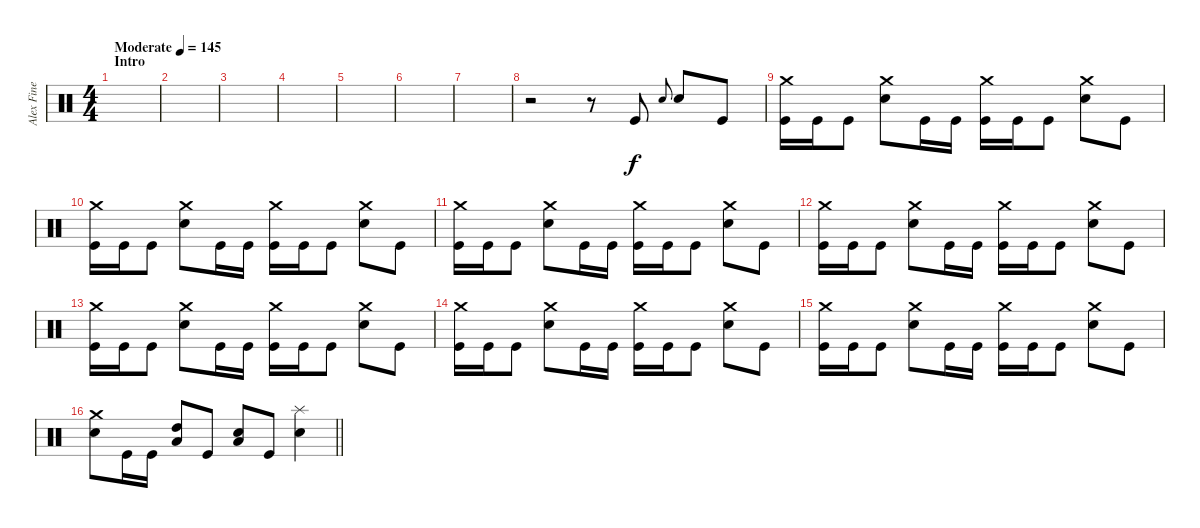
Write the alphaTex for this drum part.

\track ("Alex Fine (Drums)" "Alex Fine ") {instrument percussion}
\staff {score}
\articulation defaults
\ts (4 4)
\section ("" "Intro")
\tempo (145 "Moderate")
\clef neutral
\ks c
|
|
|
|
|
|
|
r.2 r.8 "Kick (hit)".8 "Snare (hit) 2".8{gr onbeat} "Snare (hit) 2".8 "Kick (hit)".8 |
("Crash medium (hit)" "Kick (hit)").16 "Kick (hit)".16 "Kick (hit)".8 ("Crash medium (hit)" "Snare (hit) 2").8 "Kick (hit)".16 "Kick (hit)".16 ("Crash medium (hit)" "Kick (hit)").16 "Kick (hit)".16 "Kick (hit)".8 ("Crash medium (hit)" "Snare (hit) 2").8 "Kick (hit)".8 |
("Crash medium (hit)" "Kick (hit)").16 "Kick (hit)".16 "Kick (hit)".8 ("Crash medium (hit)" "Snare (hit) 2").8 "Kick (hit)".16 "Kick (hit)".16 ("Crash medium (hit)" "Kick (hit)").16 "Kick (hit)".16 "Kick (hit)".8 ("Crash medium (hit)" "Snare (hit) 2").8 "Kick (hit)".8 |
("Crash medium (hit)" "Kick (hit)").16 "Kick (hit)".16 "Kick (hit)".8 ("Crash medium (hit)" "Snare (hit) 2").8 "Kick (hit)".16 "Kick (hit)".16 ("Crash medium (hit)" "Kick (hit)").16 "Kick (hit)".16 "Kick (hit)".8 ("Crash medium (hit)" "Snare (hit) 2").8 "Kick (hit)".8 |
("Crash medium (hit)" "Kick (hit)").16 "Kick (hit)".16 "Kick (hit)".8 ("Crash medium (hit)" "Snare (hit) 2").8 "Kick (hit)".16 "Kick (hit)".16 ("Crash medium (hit)" "Kick (hit)").16 "Kick (hit)".16 "Kick (hit)".8 ("Crash medium (hit)" "Snare (hit) 2").8 "Kick (hit)".8 |
("Crash medium (hit)" "Kick (hit)").16 "Kick (hit)".16 "Kick (hit)".8 ("Crash medium (hit)" "Snare (hit) 2").8 "Kick (hit)".16 "Kick (hit)".16 ("Crash medium (hit)" "Kick (hit)").16 "Kick (hit)".16 "Kick (hit)".8 ("Crash medium (hit)" "Snare (hit) 2").8 "Kick (hit)".8 |
("Crash medium (hit)" "Kick (hit)").16 "Kick (hit)".16 "Kick (hit)".8 ("Crash medium (hit)" "Snare (hit) 2").8 "Kick (hit)".16 "Kick (hit)".16 ("Crash medium (hit)" "Kick (hit)").16 "Kick (hit)".16 "Kick (hit)".8 ("Crash medium (hit)" "Snare (hit) 2").8 "Kick (hit)".8 |
("Crash medium (hit)" "Kick (hit)").16 "Kick (hit)".16 "Kick (hit)".8 ("Crash medium (hit)" "Snare (hit) 2").8 "Kick (hit)".16 "Kick (hit)".16 ("Crash medium (hit)" "Kick (hit)").16 "Kick (hit)".16 "Kick (hit)".8 ("Crash medium (hit)" "Snare (hit) 2").8 "Kick (hit)".8 |
\barLineRight lightlight
("Crash medium (hit)" "Snare (hit) 2").8 "Kick (hit)".16 "Kick (hit)".16 ("High Tom (hit)" "Low Tom (hit)").8 "Kick (hit)".8 ("Snare (hit) 2" "Low Floor Tom (hit)").8 "Kick (hit)".8 ("Splash (hit)" "Snare (hit) 2").4
